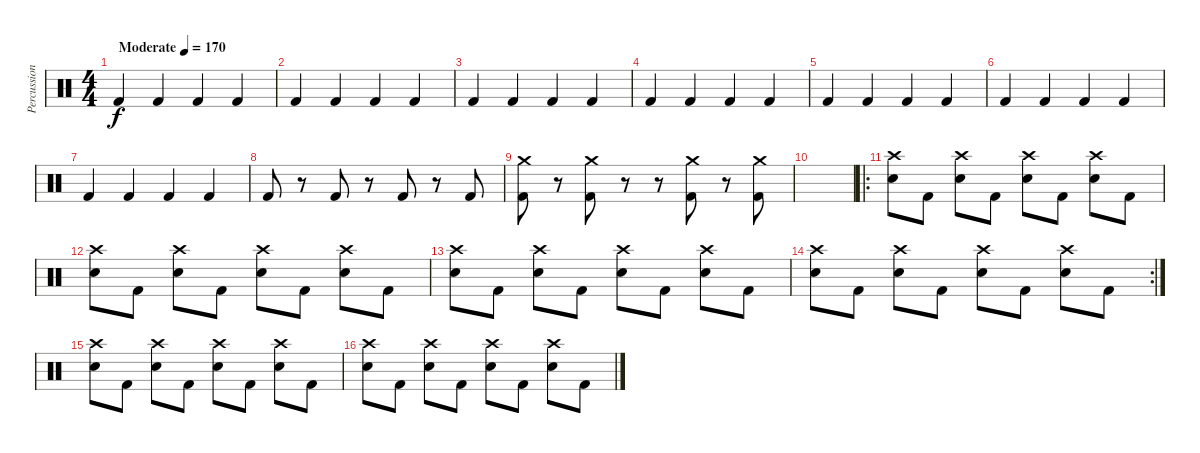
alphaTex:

\track ("Percussion" "Percussion") {instrument percussion}
\staff {score}
\articulation defaults
\ts (4 4)
\tempo (170 "Moderate")
\clef neutral
\ks c "Kick (hit) 2".4{dy f} "Kick (hit) 2".4 "Kick (hit) 2".4 "Kick (hit) 2".4
|
"Kick (hit) 2".4 "Kick (hit) 2".4 "Kick (hit) 2".4 "Kick (hit) 2".4 |
"Kick (hit) 2".4 "Kick (hit) 2".4 "Kick (hit) 2".4 "Kick (hit) 2".4 |
"Kick (hit) 2".4 "Kick (hit) 2".4 "Kick (hit) 2".4 "Kick (hit) 2".4 |
"Kick (hit) 2".4 "Kick (hit) 2".4 "Kick (hit) 2".4 "Kick (hit) 2".4 |
"Kick (hit) 2".4 "Kick (hit) 2".4 "Kick (hit) 2".4 "Kick (hit) 2".4 |
"Kick (hit) 2".4 "Kick (hit) 2".4 "Kick (hit) 2".4 "Kick (hit) 2".4 |
"Kick (hit) 2".8 r.8 "Kick (hit) 2".8 r.8 "Kick (hit) 2".8 r.8 "Kick (hit) 2".8 |
("Crash medium (hit)" "Kick (hit) 2").8 r.8 ("Crash medium (hit)" "Kick (hit) 2").8 r.8 r.8 ("Crash medium (hit)" "Kick (hit) 2").8 r.8 ("Crash medium (hit)" "Kick (hit) 2").8 |
|
\ro
("Crash high (hit)" "Electric Snare (hit)").8 "Kick (hit) 2".8 ("Crash high (hit)" "Electric Snare (hit)").8 "Kick (hit) 2".8 ("Crash high (hit)" "Electric Snare (hit)").8 "Kick (hit) 2".8 ("Crash high (hit)" "Electric Snare (hit)").8 "Kick (hit) 2".8 |
("Crash high (hit)" "Electric Snare (hit)").8 "Kick (hit) 2".8 ("Crash high (hit)" "Electric Snare (hit)").8 "Kick (hit) 2".8 ("Crash high (hit)" "Electric Snare (hit)").8 "Kick (hit) 2".8 ("Crash high (hit)" "Electric Snare (hit)").8 "Kick (hit) 2".8 |
("Crash high (hit)" "Electric Snare (hit)").8 "Kick (hit) 2".8 ("Crash high (hit)" "Electric Snare (hit)").8 "Kick (hit) 2".8 ("Crash high (hit)" "Electric Snare (hit)").8 "Kick (hit) 2".8 ("Crash high (hit)" "Electric Snare (hit)").8 "Kick (hit) 2".8 |
\rc 2
("Crash high (hit)" "Electric Snare (hit)").8 "Kick (hit) 2".8 ("Crash high (hit)" "Electric Snare (hit)").8 "Kick (hit) 2".8 ("Crash high (hit)" "Electric Snare (hit)").8 "Kick (hit) 2".8 ("Crash high (hit)" "Electric Snare (hit)").8 "Kick (hit) 2".8 |
("Crash high (hit)" "Electric Snare (hit)").8 "Kick (hit) 2".8 ("Crash high (hit)" "Electric Snare (hit)").8 "Kick (hit) 2".8 ("Crash high (hit)" "Electric Snare (hit)").8 "Kick (hit) 2".8 ("Crash high (hit)" "Electric Snare (hit)").8 "Kick (hit) 2".8 |
("Crash high (hit)" "Electric Snare (hit)").8 "Kick (hit) 2".8 ("Crash high (hit)" "Electric Snare (hit)").8 "Kick (hit) 2".8 ("Crash high (hit)" "Electric Snare (hit)").8 "Kick (hit) 2".8 ("Crash high (hit)" "Electric Snare (hit)").8 "Kick (hit) 2".8
